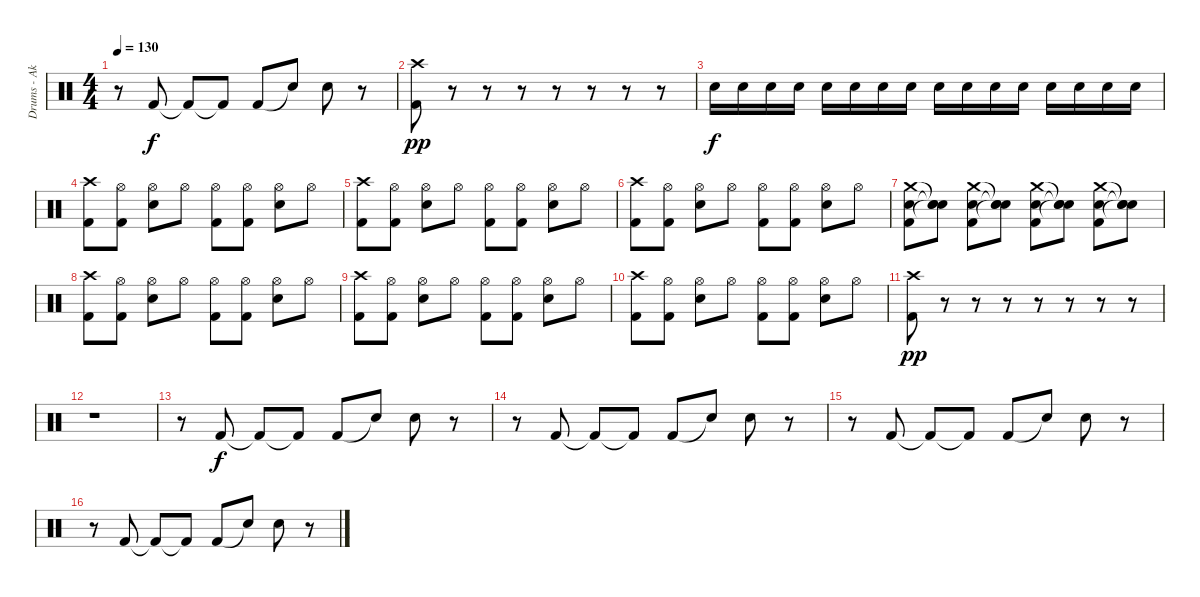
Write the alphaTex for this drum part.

\track ("Drums - Aki Hakala/Janne" "Drums - Ak") {instrument percussion}
\staff {score}
\articulation defaults
\ts (4 4)
\tempo 130
\clef neutral
\ks c
r.8{dy f} "Kick (hit) 2".8 "Kick (hit) 2"{t}.8 "Kick (hit) 2"{t}.8 "Kick (hit) 2".8 "Snare (hit)"{t}.8 "Electric Snare (hit)".8 r.8 |
("Crash high (hit)" "Kick (hit) 2").8{dy pp} r.8 r.8 r.8 r.8 r.8 r.8 r.8 |
"Electric Snare (hit)".16{dy f} "Electric Snare (hit)".16 "Electric Snare (hit)".16 "Electric Snare (hit)".16 "Electric Snare (hit)".16 "Electric Snare (hit)".16 "Electric Snare (hit)".16 "Electric Snare (hit)".16 "Electric Snare (hit)".16 "Electric Snare (hit)".16 "Electric Snare (hit)".16 "Electric Snare (hit)".16 "Electric Snare (hit)".16 "Electric Snare (hit)".16 "Electric Snare (hit)".16 "Electric Snare (hit)".16 |
("Crash high (hit)" "Kick (hit) 2").8 ("Hi-Hat (open)" "Kick (hit) 2").8 ("Hi-Hat (open)" "Electric Snare (hit)").8 "Hi-Hat (open)".8 ("Hi-Hat (open)" "Kick (hit) 2").8 ("Hi-Hat (open)" "Kick (hit) 2").8 ("Hi-Hat (open)" "Electric Snare (hit)").8 "Hi-Hat (open)".8 |
("Crash high (hit)" "Kick (hit) 2").8 ("Hi-Hat (open)" "Kick (hit) 2").8 ("Hi-Hat (open)" "Electric Snare (hit)").8 "Hi-Hat (open)".8 ("Hi-Hat (open)" "Kick (hit) 2").8 ("Hi-Hat (open)" "Kick (hit) 2").8 ("Hi-Hat (open)" "Electric Snare (hit)").8 "Hi-Hat (open)".8 |
("Crash high (hit)" "Kick (hit) 2").8 ("Hi-Hat (open)" "Kick (hit) 2").8 ("Hi-Hat (open)" "Electric Snare (hit)").8 "Hi-Hat (open)".8 ("Hi-Hat (open)" "Kick (hit) 2").8 ("Hi-Hat (open)" "Kick (hit) 2").8 ("Hi-Hat (open)" "Electric Snare (hit)").8 "Hi-Hat (open)".8 |
("Crash medium (hit)" "Electric Snare (hit)" "Kick (hit) 2").8 ("Snare (hit)"{t} "Electric Snare (hit)"{t} "Snare (hit)"{t}).8 ("Crash medium (hit)" "Electric Snare (hit)" "Kick (hit) 2").8 ("Snare (hit)"{t} "Snare (hit)"{t} "Snare (hit)"{t}).8 ("Crash medium (hit)" "Electric Snare (hit)" "Kick (hit) 2").8 ("Snare (hit)"{t} "Snare (hit)"{t} "Snare (hit)"{t}).8 ("Crash medium (hit)" "Electric Snare (hit)" "Kick (hit) 2").8 ("Snare (hit)"{t} "Snare (hit)"{t} "Snare (hit)"{t}).8 |
("Crash high (hit)" "Kick (hit) 2").8 ("Hi-Hat (open)" "Kick (hit) 2").8 ("Hi-Hat (open)" "Electric Snare (hit)").8 "Hi-Hat (open)".8 ("Hi-Hat (open)" "Kick (hit) 2").8 ("Hi-Hat (open)" "Kick (hit) 2").8 ("Hi-Hat (open)" "Electric Snare (hit)").8 "Hi-Hat (open)".8 |
("Crash high (hit)" "Kick (hit) 2").8 ("Hi-Hat (open)" "Kick (hit) 2").8 ("Hi-Hat (open)" "Electric Snare (hit)").8 "Hi-Hat (open)".8 ("Hi-Hat (open)" "Kick (hit) 2").8 ("Hi-Hat (open)" "Kick (hit) 2").8 ("Hi-Hat (open)" "Electric Snare (hit)").8 "Hi-Hat (open)".8 |
("Crash high (hit)" "Kick (hit) 2").8 ("Hi-Hat (open)" "Kick (hit) 2").8 ("Hi-Hat (open)" "Electric Snare (hit)").8 "Hi-Hat (open)".8 ("Hi-Hat (open)" "Kick (hit) 2").8 ("Hi-Hat (open)" "Kick (hit) 2").8 ("Hi-Hat (open)" "Electric Snare (hit)").8 "Hi-Hat (open)".8 |
("Crash high (hit)" "Kick (hit) 2").8{dy pp} r.8 r.8 r.8 r.8 r.8 r.8 r.8 |
r.1 |
r.8 "Kick (hit) 2".8{dy f} "Kick (hit) 2"{t}.8 "Kick (hit) 2"{t}.8 "Kick (hit) 2".8 "Snare (hit)"{t}.8 "Electric Snare (hit)".8 r.8 |
r.8 "Kick (hit) 2".8 "Kick (hit) 2"{t}.8 "Kick (hit) 2"{t}.8 "Kick (hit) 2".8 "Snare (hit)"{t}.8 "Electric Snare (hit)".8 r.8 |
r.8 "Kick (hit) 2".8 "Kick (hit) 2"{t}.8 "Kick (hit) 2"{t}.8 "Kick (hit) 2".8 "Snare (hit)"{t}.8 "Electric Snare (hit)".8 r.8 |
r.8 "Kick (hit) 2".8 "Kick (hit) 2"{t}.8 "Kick (hit) 2"{t}.8 "Kick (hit) 2".8 "Snare (hit)"{t}.8 "Electric Snare (hit)".8 r.8
